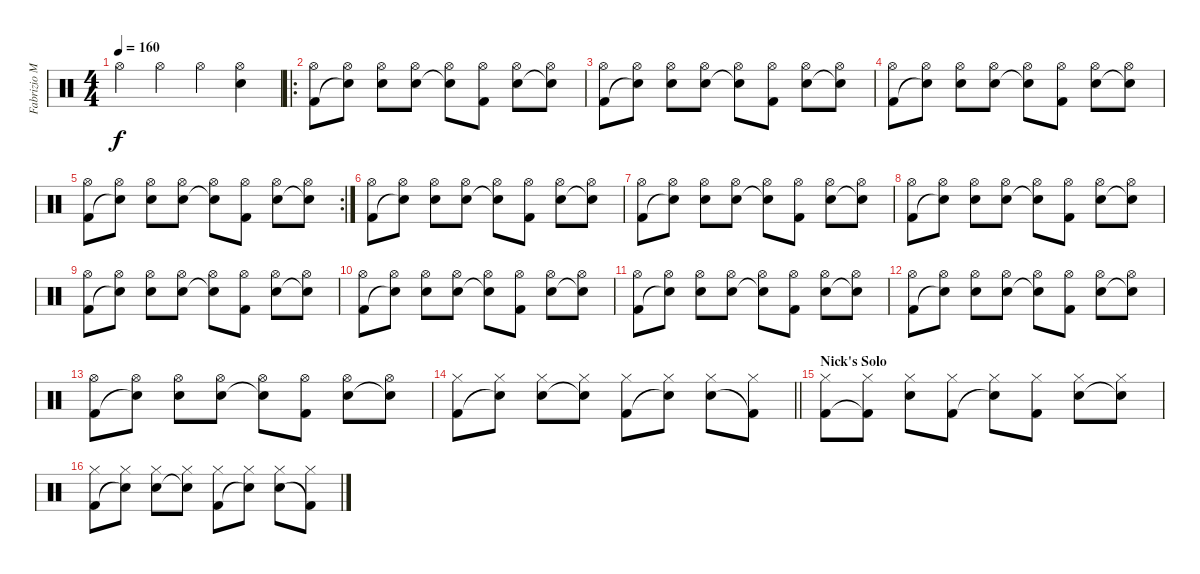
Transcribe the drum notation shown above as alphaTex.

\track ("Fabrizio Moretti" "Fabrizio M") {instrument percussion}
\staff {score}
\articulation defaults
\ts (4 4)
\tempo 160
\clef neutral
\ks c "Hi-Hat (open)".4{dy f} "Hi-Hat (open)".4 "Hi-Hat (open)".4
("Hi-Hat (open)" "Electric Snare (hit)").4 |
\ro
("Hi-Hat (open)" "Kick (hit) 2").8 ("Hi-Hat (open)" "Snare (hit)"{t}).8 ("Hi-Hat (open)" "Electric Snare (hit)").8 ("Hi-Hat (open)" "Electric Snare (hit)").8 ("Hi-Hat (open)" "Snare (hit)"{t}).8 ("Hi-Hat (open)" "Kick (hit) 2").8 ("Hi-Hat (open)" "Electric Snare (hit)").8 ("Hi-Hat (open)" "Snare (hit)"{t}).8 |
("Hi-Hat (open)" "Kick (hit) 2").8 ("Hi-Hat (open)" "Snare (hit)"{t}).8 ("Hi-Hat (open)" "Electric Snare (hit)").8 ("Hi-Hat (open)" "Electric Snare (hit)").8 ("Hi-Hat (open)" "Snare (hit)"{t}).8 ("Hi-Hat (open)" "Kick (hit) 2").8 ("Hi-Hat (open)" "Electric Snare (hit)").8 ("Hi-Hat (open)" "Snare (hit)"{t}).8 |
("Hi-Hat (open)" "Kick (hit) 2").8 ("Hi-Hat (open)" "Snare (hit)"{t}).8 ("Hi-Hat (open)" "Electric Snare (hit)").8 ("Hi-Hat (open)" "Electric Snare (hit)").8 ("Hi-Hat (open)" "Snare (hit)"{t}).8 ("Hi-Hat (open)" "Kick (hit) 2").8 ("Hi-Hat (open)" "Electric Snare (hit)").8 ("Hi-Hat (open)" "Snare (hit)"{t}).8 |
\rc 2
("Hi-Hat (open)" "Kick (hit) 2").8 ("Hi-Hat (open)" "Snare (hit)"{t}).8 ("Hi-Hat (open)" "Electric Snare (hit)").8 ("Hi-Hat (open)" "Electric Snare (hit)").8 ("Hi-Hat (open)" "Snare (hit)"{t}).8 ("Hi-Hat (open)" "Kick (hit) 2").8 ("Hi-Hat (open)" "Electric Snare (hit)").8 ("Hi-Hat (open)" "Snare (hit)"{t}).8 |
("Hi-Hat (open)" "Kick (hit) 2").8 ("Hi-Hat (open)" "Snare (hit)"{t}).8 ("Hi-Hat (open)" "Electric Snare (hit)").8 ("Hi-Hat (open)" "Electric Snare (hit)").8 ("Hi-Hat (open)" "Snare (hit)"{t}).8 ("Hi-Hat (open)" "Kick (hit) 2").8 ("Hi-Hat (open)" "Electric Snare (hit)").8 ("Hi-Hat (open)" "Snare (hit)"{t}).8 |
("Hi-Hat (open)" "Kick (hit) 2").8 ("Hi-Hat (open)" "Snare (hit)"{t}).8 ("Hi-Hat (open)" "Electric Snare (hit)").8 ("Hi-Hat (open)" "Electric Snare (hit)").8 ("Hi-Hat (open)" "Snare (hit)"{t}).8 ("Hi-Hat (open)" "Kick (hit) 2").8 ("Hi-Hat (open)" "Electric Snare (hit)").8 ("Hi-Hat (open)" "Snare (hit)"{t}).8 |
("Hi-Hat (open)" "Kick (hit) 2").8 ("Hi-Hat (open)" "Snare (hit)"{t}).8 ("Hi-Hat (open)" "Electric Snare (hit)").8 ("Hi-Hat (open)" "Electric Snare (hit)").8 ("Hi-Hat (open)" "Snare (hit)"{t}).8 ("Hi-Hat (open)" "Kick (hit) 2").8 ("Hi-Hat (open)" "Electric Snare (hit)").8 ("Hi-Hat (open)" "Snare (hit)"{t}).8 |
("Hi-Hat (open)" "Kick (hit) 2").8 ("Hi-Hat (open)" "Snare (hit)"{t}).8 ("Hi-Hat (open)" "Electric Snare (hit)").8 ("Hi-Hat (open)" "Electric Snare (hit)").8 ("Hi-Hat (open)" "Snare (hit)"{t}).8 ("Hi-Hat (open)" "Kick (hit) 2").8 ("Hi-Hat (open)" "Electric Snare (hit)").8 ("Hi-Hat (open)" "Snare (hit)"{t}).8 |
("Hi-Hat (open)" "Kick (hit) 2").8 ("Hi-Hat (open)" "Snare (hit)"{t}).8 ("Hi-Hat (open)" "Electric Snare (hit)").8 ("Hi-Hat (open)" "Electric Snare (hit)").8 ("Hi-Hat (open)" "Snare (hit)"{t}).8 ("Hi-Hat (open)" "Kick (hit) 2").8 ("Hi-Hat (open)" "Electric Snare (hit)").8 ("Hi-Hat (open)" "Snare (hit)"{t}).8 |
("Hi-Hat (open)" "Kick (hit) 2").8 ("Hi-Hat (open)" "Snare (hit)"{t}).8 ("Hi-Hat (open)" "Electric Snare (hit)").8 ("Hi-Hat (open)" "Electric Snare (hit)").8 ("Hi-Hat (open)" "Snare (hit)"{t}).8 ("Hi-Hat (open)" "Kick (hit) 2").8 ("Hi-Hat (open)" "Electric Snare (hit)").8 ("Hi-Hat (open)" "Snare (hit)"{t}).8 |
("Hi-Hat (open)" "Kick (hit) 2").8 ("Hi-Hat (open)" "Snare (hit)"{t}).8 ("Hi-Hat (open)" "Electric Snare (hit)").8 ("Hi-Hat (open)" "Electric Snare (hit)").8 ("Hi-Hat (open)" "Snare (hit)"{t}).8 ("Hi-Hat (open)" "Kick (hit) 2").8 ("Hi-Hat (open)" "Electric Snare (hit)").8 ("Hi-Hat (open)" "Snare (hit)"{t}).8 |
("Hi-Hat (open)" "Kick (hit) 2").8 ("Hi-Hat (open)" "Snare (hit)"{t}).8 ("Hi-Hat (open)" "Electric Snare (hit)").8 ("Hi-Hat (open)" "Electric Snare (hit)").8 ("Hi-Hat (open)" "Snare (hit)"{t}).8 ("Hi-Hat (open)" "Kick (hit) 2").8 ("Hi-Hat (open)" "Electric Snare (hit)").8 ("Hi-Hat (open)" "Snare (hit)"{t}).8 |
\barLineRight lightlight
("Hi-Hat (closed)" "Kick (hit) 2").8 ("Hi-Hat (closed)" "Snare (hit)"{t}).8 ("Hi-Hat (closed)" "Electric Snare (hit)").8 ("Hi-Hat (closed)" "Snare (hit)"{t}).8 ("Hi-Hat (closed)" "Kick (hit) 2").8 ("Hi-Hat (closed)" "Snare (hit)"{t}).8 ("Hi-Hat (closed)" "Electric Snare (hit)").8 ("Hi-Hat (closed)" "Kick (hit) 2"{t}).8 |
\section ("" "Nick's Solo")
("Hi-Hat (closed)" "Kick (hit) 2").8 ("Hi-Hat (closed)" "Kick (hit) 2"{t}).8 ("Hi-Hat (closed)" "Electric Snare (hit)").8 ("Hi-Hat (closed)" "Kick (hit) 2").8 ("Hi-Hat (closed)" "Snare (hit)"{t}).8 ("Hi-Hat (closed)" "Kick (hit) 2").8 ("Hi-Hat (closed)" "Electric Snare (hit)").8 ("Hi-Hat (closed)" "Electric Snare (hit)"{t}).8 |
("Hi-Hat (closed)" "Kick (hit) 2").8 ("Hi-Hat (closed)" "Snare (hit)"{t}).8 ("Hi-Hat (closed)" "Electric Snare (hit)").8 ("Hi-Hat (closed)" "Snare (hit)"{t}).8 ("Hi-Hat (closed)" "Kick (hit) 2").8 ("Hi-Hat (closed)" "Snare (hit)"{t}).8 ("Hi-Hat (closed)" "Electric Snare (hit)").8 ("Hi-Hat (closed)" "Kick (hit) 2"{t}).8
